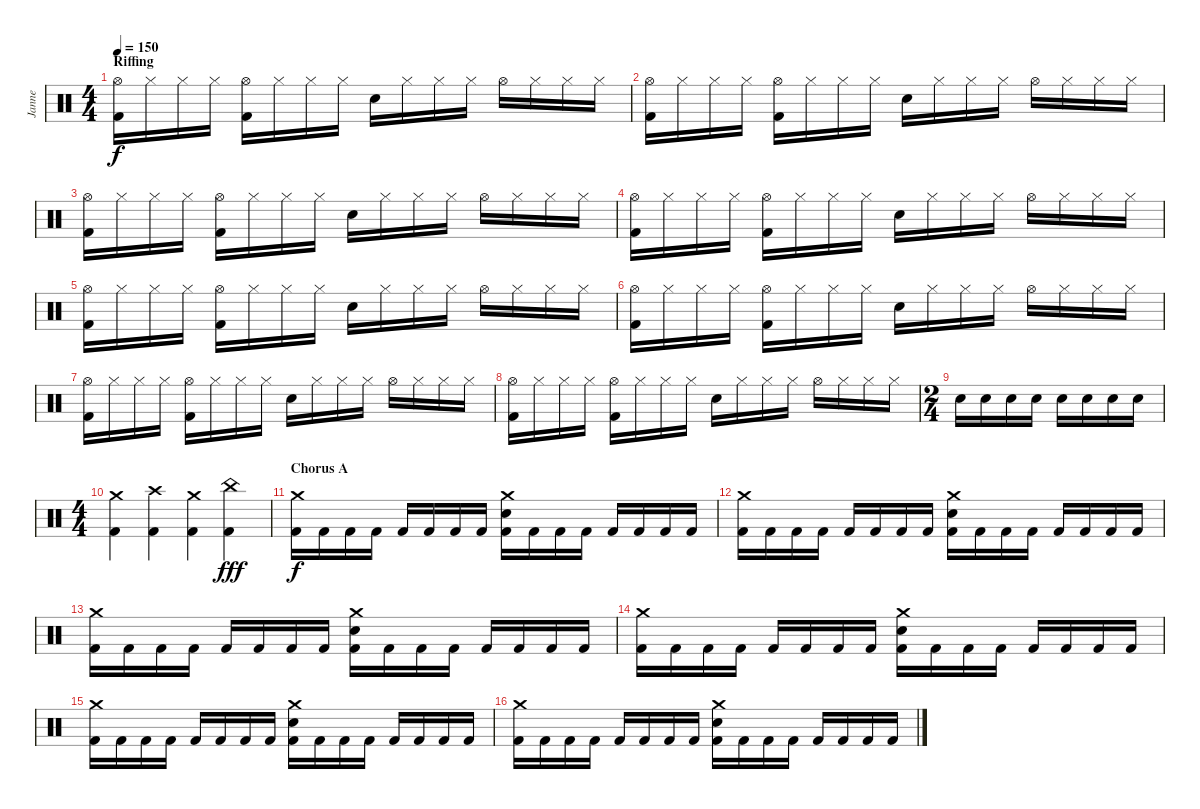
\track ("Janne" "Janne") {instrument percussion}
\staff {score}
\articulation defaults
\ts (4 4)
\section ("" "Riffing")
\tempo 150
\clef neutral
\ks c
("Hi-Hat (open)" "Kick (hit) 2").16{dy f} "Hi-Hat (closed)".16 "Hi-Hat (closed)".16 "Hi-Hat (closed)".16 ("Hi-Hat (open)" "Kick (hit) 2").16 "Hi-Hat (closed)".16 "Hi-Hat (closed)".16 "Hi-Hat (closed)".16 "Electric Snare (hit)".16 "Hi-Hat (closed)".16 "Hi-Hat (closed)".16 "Hi-Hat (closed)".16 "Hi-Hat (open)".16 "Hi-Hat (closed)".16 "Hi-Hat (closed)".16 "Hi-Hat (closed)".16 |
("Hi-Hat (open)" "Kick (hit) 2").16 "Hi-Hat (closed)".16 "Hi-Hat (closed)".16 "Hi-Hat (closed)".16 ("Hi-Hat (open)" "Kick (hit) 2").16 "Hi-Hat (closed)".16 "Hi-Hat (closed)".16 "Hi-Hat (closed)".16 "Electric Snare (hit)".16 "Hi-Hat (closed)".16 "Hi-Hat (closed)".16 "Hi-Hat (closed)".16 "Hi-Hat (open)".16 "Hi-Hat (closed)".16 "Hi-Hat (closed)".16 "Hi-Hat (closed)".16 |
("Hi-Hat (open)" "Kick (hit) 2").16 "Hi-Hat (closed)".16 "Hi-Hat (closed)".16 "Hi-Hat (closed)".16 ("Hi-Hat (open)" "Kick (hit) 2").16 "Hi-Hat (closed)".16 "Hi-Hat (closed)".16 "Hi-Hat (closed)".16 "Electric Snare (hit)".16 "Hi-Hat (closed)".16 "Hi-Hat (closed)".16 "Hi-Hat (closed)".16 "Hi-Hat (open)".16 "Hi-Hat (closed)".16 "Hi-Hat (closed)".16 "Hi-Hat (closed)".16 |
("Hi-Hat (open)" "Kick (hit) 2").16 "Hi-Hat (closed)".16 "Hi-Hat (closed)".16 "Hi-Hat (closed)".16 ("Hi-Hat (open)" "Kick (hit) 2").16 "Hi-Hat (closed)".16 "Hi-Hat (closed)".16 "Hi-Hat (closed)".16 "Electric Snare (hit)".16 "Hi-Hat (closed)".16 "Hi-Hat (closed)".16 "Hi-Hat (closed)".16 "Hi-Hat (open)".16 "Hi-Hat (closed)".16 "Hi-Hat (closed)".16 "Hi-Hat (closed)".16 |
("Hi-Hat (open)" "Kick (hit) 2").16 "Hi-Hat (closed)".16 "Hi-Hat (closed)".16 "Hi-Hat (closed)".16 ("Hi-Hat (open)" "Kick (hit) 2").16 "Hi-Hat (closed)".16 "Hi-Hat (closed)".16 "Hi-Hat (closed)".16 "Electric Snare (hit)".16 "Hi-Hat (closed)".16 "Hi-Hat (closed)".16 "Hi-Hat (closed)".16 "Hi-Hat (open)".16 "Hi-Hat (closed)".16 "Hi-Hat (closed)".16 "Hi-Hat (closed)".16 |
("Hi-Hat (open)" "Kick (hit) 2").16 "Hi-Hat (closed)".16 "Hi-Hat (closed)".16 "Hi-Hat (closed)".16 ("Hi-Hat (open)" "Kick (hit) 2").16 "Hi-Hat (closed)".16 "Hi-Hat (closed)".16 "Hi-Hat (closed)".16 "Electric Snare (hit)".16 "Hi-Hat (closed)".16 "Hi-Hat (closed)".16 "Hi-Hat (closed)".16 "Hi-Hat (open)".16 "Hi-Hat (closed)".16 "Hi-Hat (closed)".16 "Hi-Hat (closed)".16 |
("Hi-Hat (open)" "Kick (hit) 2").16 "Hi-Hat (closed)".16 "Hi-Hat (closed)".16 "Hi-Hat (closed)".16 ("Hi-Hat (open)" "Kick (hit) 2").16 "Hi-Hat (closed)".16 "Hi-Hat (closed)".16 "Hi-Hat (closed)".16 "Electric Snare (hit)".16 "Hi-Hat (closed)".16 "Hi-Hat (closed)".16 "Hi-Hat (closed)".16 "Hi-Hat (open)".16 "Hi-Hat (closed)".16 "Hi-Hat (closed)".16 "Hi-Hat (closed)".16 |
("Hi-Hat (open)" "Kick (hit) 2").16 "Hi-Hat (closed)".16 "Hi-Hat (closed)".16 "Hi-Hat (closed)".16 ("Hi-Hat (open)" "Kick (hit) 2").16 "Hi-Hat (closed)".16 "Hi-Hat (closed)".16 "Hi-Hat (closed)".16 "Electric Snare (hit)".16 "Hi-Hat (closed)".16 "Hi-Hat (closed)".16 "Hi-Hat (closed)".16 "Hi-Hat (open)".16 "Hi-Hat (closed)".16 "Hi-Hat (closed)".16 "Hi-Hat (closed)".16 |
\ts (2 4)
"Electric Snare (hit)".16 "Electric Snare (hit)".16 "Electric Snare (hit)".16 "Electric Snare (hit)".16 "Electric Snare (hit)".16 "Electric Snare (hit)".16 "Electric Snare (hit)".16 "Electric Snare (hit)".16 |
\ts (4 4)
("Crash medium (hit)" "Kick (hit) 2").4 ("Crash high (hit)" "Kick (hit) 2").4 ("Crash medium (hit)" "Kick (hit) 2").4 ("China (hit)" "Kick (hit) 2").4{dy fff} |
\section ("" "Chorus A")
("Crash medium (hit)" "Kick (hit) 2").16{dy f} "Kick (hit) 2".16 "Kick (hit) 2".16 "Kick (hit) 2".16 "Kick (hit) 2".16 "Kick (hit) 2".16 "Kick (hit) 2".16 "Kick (hit) 2".16 ("Crash medium (hit)" "Electric Snare (hit)" "Kick (hit) 2").16 "Kick (hit) 2".16 "Kick (hit) 2".16 "Kick (hit) 2".16 "Kick (hit) 2".16 "Kick (hit) 2".16 "Kick (hit) 2".16 "Kick (hit) 2".16 |
("Crash medium (hit)" "Kick (hit) 2").16 "Kick (hit) 2".16 "Kick (hit) 2".16 "Kick (hit) 2".16 "Kick (hit) 2".16 "Kick (hit) 2".16 "Kick (hit) 2".16 "Kick (hit) 2".16 ("Crash medium (hit)" "Electric Snare (hit)" "Kick (hit) 2").16 "Kick (hit) 2".16 "Kick (hit) 2".16 "Kick (hit) 2".16 "Kick (hit) 2".16 "Kick (hit) 2".16 "Kick (hit) 2".16 "Kick (hit) 2".16 |
("Crash medium (hit)" "Kick (hit) 2").16 "Kick (hit) 2".16 "Kick (hit) 2".16 "Kick (hit) 2".16 "Kick (hit) 2".16 "Kick (hit) 2".16 "Kick (hit) 2".16 "Kick (hit) 2".16 ("Crash medium (hit)" "Electric Snare (hit)" "Kick (hit) 2").16 "Kick (hit) 2".16 "Kick (hit) 2".16 "Kick (hit) 2".16 "Kick (hit) 2".16 "Kick (hit) 2".16 "Kick (hit) 2".16 "Kick (hit) 2".16 |
("Crash medium (hit)" "Kick (hit) 2").16 "Kick (hit) 2".16 "Kick (hit) 2".16 "Kick (hit) 2".16 "Kick (hit) 2".16 "Kick (hit) 2".16 "Kick (hit) 2".16 "Kick (hit) 2".16 ("Crash medium (hit)" "Electric Snare (hit)" "Kick (hit) 2").16 "Kick (hit) 2".16 "Kick (hit) 2".16 "Kick (hit) 2".16 "Kick (hit) 2".16 "Kick (hit) 2".16 "Kick (hit) 2".16 "Kick (hit) 2".16 |
("Crash medium (hit)" "Kick (hit) 2").16 "Kick (hit) 2".16 "Kick (hit) 2".16 "Kick (hit) 2".16 "Kick (hit) 2".16 "Kick (hit) 2".16 "Kick (hit) 2".16 "Kick (hit) 2".16 ("Crash medium (hit)" "Electric Snare (hit)" "Kick (hit) 2").16 "Kick (hit) 2".16 "Kick (hit) 2".16 "Kick (hit) 2".16 "Kick (hit) 2".16 "Kick (hit) 2".16 "Kick (hit) 2".16 "Kick (hit) 2".16 |
("Crash medium (hit)" "Kick (hit) 2").16 "Kick (hit) 2".16 "Kick (hit) 2".16 "Kick (hit) 2".16 "Kick (hit) 2".16 "Kick (hit) 2".16 "Kick (hit) 2".16 "Kick (hit) 2".16 ("Crash medium (hit)" "Electric Snare (hit)" "Kick (hit) 2").16 "Kick (hit) 2".16 "Kick (hit) 2".16 "Kick (hit) 2".16 "Kick (hit) 2".16 "Kick (hit) 2".16 "Kick (hit) 2".16 "Kick (hit) 2".16
